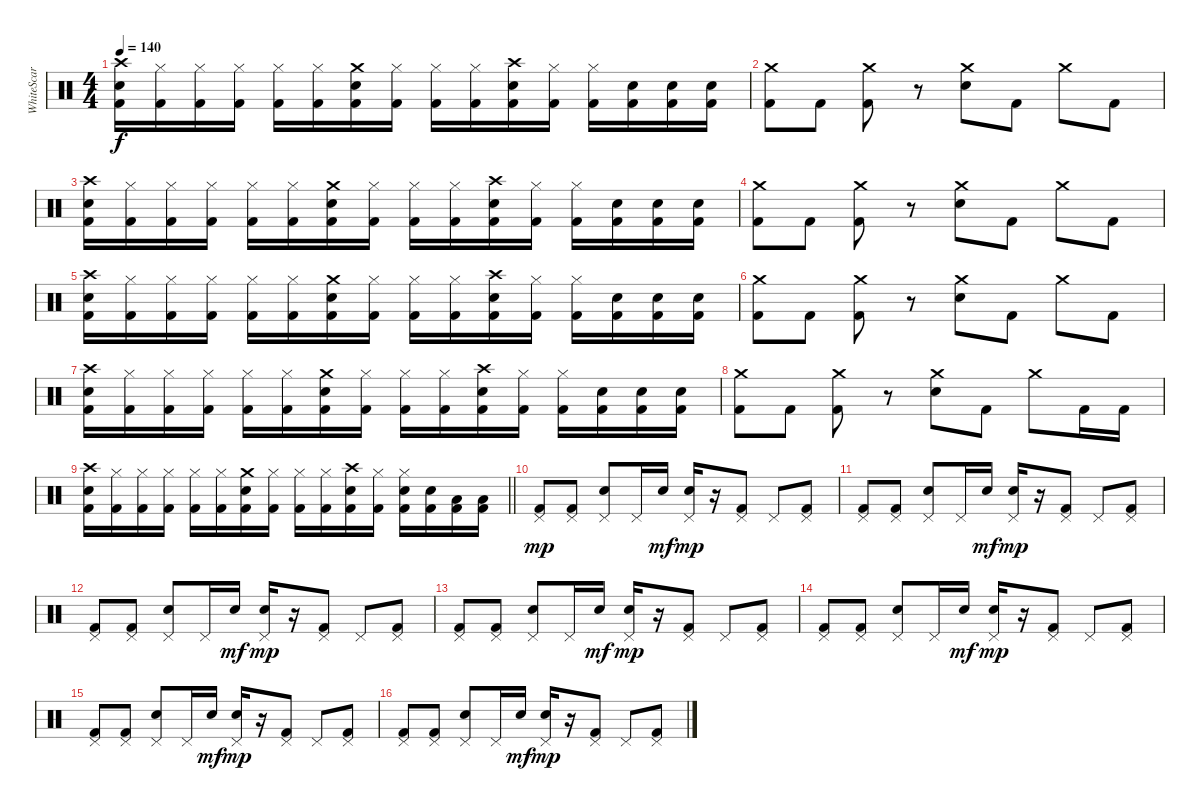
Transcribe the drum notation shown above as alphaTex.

\track ("WhiteScar " "WhiteScar ") {instrument percussion}
\staff {score}
\articulation defaults
\ts (4 4)
\tempo 140
\clef neutral
\ks c
("Crash high (hit)" "Snare (hit) 2" "Kick (hit) 2").16{dy f} ("Hi-Hat (closed)" "Kick (hit) 2").16 ("Hi-Hat (closed)" "Kick (hit) 2").16 ("Hi-Hat (closed)" "Kick (hit) 2").16 ("Hi-Hat (closed)" "Kick (hit) 2").16 ("Hi-Hat (closed)" "Kick (hit) 2").16 ("Crash medium (hit)" "Snare (hit) 2" "Kick (hit) 2").16 ("Hi-Hat (closed)" "Kick (hit) 2").16 ("Hi-Hat (closed)" "Kick (hit) 2").16 ("Hi-Hat (closed)" "Kick (hit) 2").16 ("Crash high (hit)" "Snare (hit) 2" "Kick (hit) 2").16 ("Hi-Hat (closed)" "Kick (hit) 2").16 ("Hi-Hat (closed)" "Kick (hit) 2").16 ("Snare (hit) 2" "Kick (hit) 2").16 ("Snare (hit) 2" "Kick (hit) 2").16 ("Snare (hit) 2" "Kick (hit) 2").16 |
("Crash medium (hit)" "Kick (hit) 2").8 "Kick (hit) 2".8 ("Crash medium (hit)" "Kick (hit) 2").8 r.8 ("Crash medium (hit)" "Snare (hit) 2").8 "Kick (hit) 2".8 "Crash medium (hit)".8 "Kick (hit) 2".8 |
("Crash high (hit)" "Snare (hit) 2" "Kick (hit) 2").16 ("Hi-Hat (closed)" "Kick (hit) 2").16 ("Hi-Hat (closed)" "Kick (hit) 2").16 ("Hi-Hat (closed)" "Kick (hit) 2").16 ("Hi-Hat (closed)" "Kick (hit) 2").16 ("Hi-Hat (closed)" "Kick (hit) 2").16 ("Crash medium (hit)" "Snare (hit) 2" "Kick (hit) 2").16 ("Hi-Hat (closed)" "Kick (hit) 2").16 ("Hi-Hat (closed)" "Kick (hit) 2").16 ("Hi-Hat (closed)" "Kick (hit) 2").16 ("Crash high (hit)" "Snare (hit) 2" "Kick (hit) 2").16 ("Hi-Hat (closed)" "Kick (hit) 2").16 ("Hi-Hat (closed)" "Kick (hit) 2").16 ("Snare (hit) 2" "Kick (hit) 2").16 ("Snare (hit) 2" "Kick (hit) 2").16 ("Snare (hit) 2" "Kick (hit) 2").16 |
("Crash medium (hit)" "Kick (hit) 2").8 "Kick (hit) 2".8 ("Crash medium (hit)" "Kick (hit) 2").8 r.8 ("Crash medium (hit)" "Snare (hit) 2").8 "Kick (hit) 2".8 "Crash medium (hit)".8 "Kick (hit) 2".8 |
("Crash high (hit)" "Snare (hit) 2" "Kick (hit) 2").16 ("Hi-Hat (closed)" "Kick (hit) 2").16 ("Hi-Hat (closed)" "Kick (hit) 2").16 ("Hi-Hat (closed)" "Kick (hit) 2").16 ("Hi-Hat (closed)" "Kick (hit) 2").16 ("Hi-Hat (closed)" "Kick (hit) 2").16 ("Crash medium (hit)" "Snare (hit) 2" "Kick (hit) 2").16 ("Hi-Hat (closed)" "Kick (hit) 2").16 ("Hi-Hat (closed)" "Kick (hit) 2").16 ("Hi-Hat (closed)" "Kick (hit) 2").16 ("Crash high (hit)" "Snare (hit) 2" "Kick (hit) 2").16 ("Hi-Hat (closed)" "Kick (hit) 2").16 ("Hi-Hat (closed)" "Kick (hit) 2").16 ("Snare (hit) 2" "Kick (hit) 2").16 ("Snare (hit) 2" "Kick (hit) 2").16 ("Snare (hit) 2" "Kick (hit) 2").16 |
("Crash medium (hit)" "Kick (hit) 2").8 "Kick (hit) 2".8 ("Crash medium (hit)" "Kick (hit) 2").8 r.8 ("Crash medium (hit)" "Snare (hit) 2").8 "Kick (hit) 2".8 "Crash medium (hit)".8 "Kick (hit) 2".8 |
("Crash high (hit)" "Snare (hit) 2" "Kick (hit) 2").16 ("Hi-Hat (closed)" "Kick (hit) 2").16 ("Hi-Hat (closed)" "Kick (hit) 2").16 ("Hi-Hat (closed)" "Kick (hit) 2").16 ("Hi-Hat (closed)" "Kick (hit) 2").16 ("Hi-Hat (closed)" "Kick (hit) 2").16 ("Crash medium (hit)" "Snare (hit) 2" "Kick (hit) 2").16 ("Hi-Hat (closed)" "Kick (hit) 2").16 ("Hi-Hat (closed)" "Kick (hit) 2").16 ("Hi-Hat (closed)" "Kick (hit) 2").16 ("Crash high (hit)" "Snare (hit) 2" "Kick (hit) 2").16 ("Hi-Hat (closed)" "Kick (hit) 2").16 ("Hi-Hat (closed)" "Kick (hit) 2").16 ("Snare (hit) 2" "Kick (hit) 2").16 ("Snare (hit) 2" "Kick (hit) 2").16 ("Snare (hit) 2" "Kick (hit) 2").16 |
("Crash medium (hit)" "Kick (hit) 2").8 "Kick (hit) 2".8 ("Crash medium (hit)" "Kick (hit) 2").8 r.8 ("Crash medium (hit)" "Snare (hit) 2").8 "Kick (hit) 2".8 "Crash medium (hit)".8 "Kick (hit) 2".16 "Kick (hit) 2".16 |
\barLineRight lightlight
("Crash high (hit)" "Snare (hit) 2" "Kick (hit) 2").16 ("Hi-Hat (closed)" "Kick (hit) 2").16 ("Hi-Hat (closed)" "Kick (hit) 2").16 ("Hi-Hat (closed)" "Kick (hit) 2").16 ("Hi-Hat (closed)" "Kick (hit) 2").16 ("Hi-Hat (closed)" "Kick (hit) 2").16 ("Crash medium (hit)" "Snare (hit) 2" "Kick (hit) 2").16 ("Hi-Hat (closed)" "Kick (hit) 2").16 ("Hi-Hat (closed)" "Kick (hit) 2").16 ("Hi-Hat (closed)" "Kick (hit) 2").16 ("Crash high (hit)" "Snare (hit) 2" "Kick (hit) 2").16 ("Hi-Hat (closed)" "Kick (hit) 2").16 ("Snare (hit) 2" "Hi-Hat (closed)" "Kick (hit) 2").16 ("Snare (hit) 2" "Kick (hit) 2").16 ("Low Tom (hit)" "Kick (hit) 2").16 ("Low Tom (hit)" "Kick (hit) 2").16 |
("Pedal Hi-Hat (hit)" "Kick (hit) 2").8{dy mp} ("Pedal Hi-Hat (hit)" "Kick (hit) 2").8 ("Pedal Hi-Hat (hit)" "Snare (hit) 2").8 "Pedal Hi-Hat (hit)".16 "Snare (hit) 2".16{dy mf} ("Pedal Hi-Hat (hit)" "Snare (hit) 2").16{dy mp} r.16 ("Pedal Hi-Hat (hit)" "Kick (hit) 2").8 "Pedal Hi-Hat (hit)".8 ("Pedal Hi-Hat (hit)" "Kick (hit) 2").8 |
("Pedal Hi-Hat (hit)" "Kick (hit) 2").8 ("Pedal Hi-Hat (hit)" "Kick (hit) 2").8 ("Pedal Hi-Hat (hit)" "Snare (hit) 2").8 "Pedal Hi-Hat (hit)".16 "Snare (hit) 2".16{dy mf} ("Pedal Hi-Hat (hit)" "Snare (hit) 2").16{dy mp} r.16 ("Pedal Hi-Hat (hit)" "Kick (hit) 2").8 "Pedal Hi-Hat (hit)".8 ("Pedal Hi-Hat (hit)" "Kick (hit) 2").8 |
("Pedal Hi-Hat (hit)" "Kick (hit) 2").8 ("Pedal Hi-Hat (hit)" "Kick (hit) 2").8 ("Pedal Hi-Hat (hit)" "Snare (hit) 2").8 "Pedal Hi-Hat (hit)".16 "Snare (hit) 2".16{dy mf} ("Pedal Hi-Hat (hit)" "Snare (hit) 2").16{dy mp} r.16 ("Pedal Hi-Hat (hit)" "Kick (hit) 2").8 "Pedal Hi-Hat (hit)".8 ("Pedal Hi-Hat (hit)" "Kick (hit) 2").8 |
("Pedal Hi-Hat (hit)" "Kick (hit) 2").8 ("Pedal Hi-Hat (hit)" "Kick (hit) 2").8 ("Pedal Hi-Hat (hit)" "Snare (hit) 2").8 "Pedal Hi-Hat (hit)".16 "Snare (hit) 2".16{dy mf} ("Pedal Hi-Hat (hit)" "Snare (hit) 2").16{dy mp} r.16 ("Pedal Hi-Hat (hit)" "Kick (hit) 2").8 "Pedal Hi-Hat (hit)".8 ("Pedal Hi-Hat (hit)" "Kick (hit) 2").8 |
("Pedal Hi-Hat (hit)" "Kick (hit) 2").8 ("Pedal Hi-Hat (hit)" "Kick (hit) 2").8 ("Pedal Hi-Hat (hit)" "Snare (hit) 2").8 "Pedal Hi-Hat (hit)".16 "Snare (hit) 2".16{dy mf} ("Pedal Hi-Hat (hit)" "Snare (hit) 2").16{dy mp} r.16 ("Pedal Hi-Hat (hit)" "Kick (hit) 2").8 "Pedal Hi-Hat (hit)".8 ("Pedal Hi-Hat (hit)" "Kick (hit) 2").8 |
("Pedal Hi-Hat (hit)" "Kick (hit) 2").8 ("Pedal Hi-Hat (hit)" "Kick (hit) 2").8 ("Pedal Hi-Hat (hit)" "Snare (hit) 2").8 "Pedal Hi-Hat (hit)".16 "Snare (hit) 2".16{dy mf} ("Pedal Hi-Hat (hit)" "Snare (hit) 2").16{dy mp} r.16 ("Pedal Hi-Hat (hit)" "Kick (hit) 2").8 "Pedal Hi-Hat (hit)".8 ("Pedal Hi-Hat (hit)" "Kick (hit) 2").8 |
("Pedal Hi-Hat (hit)" "Kick (hit) 2").8 ("Pedal Hi-Hat (hit)" "Kick (hit) 2").8 ("Pedal Hi-Hat (hit)" "Snare (hit) 2").8 "Pedal Hi-Hat (hit)".16 "Snare (hit) 2".16{dy mf} ("Pedal Hi-Hat (hit)" "Snare (hit) 2").16{dy mp} r.16 ("Pedal Hi-Hat (hit)" "Kick (hit) 2").8 "Pedal Hi-Hat (hit)".8 ("Pedal Hi-Hat (hit)" "Kick (hit) 2").8
